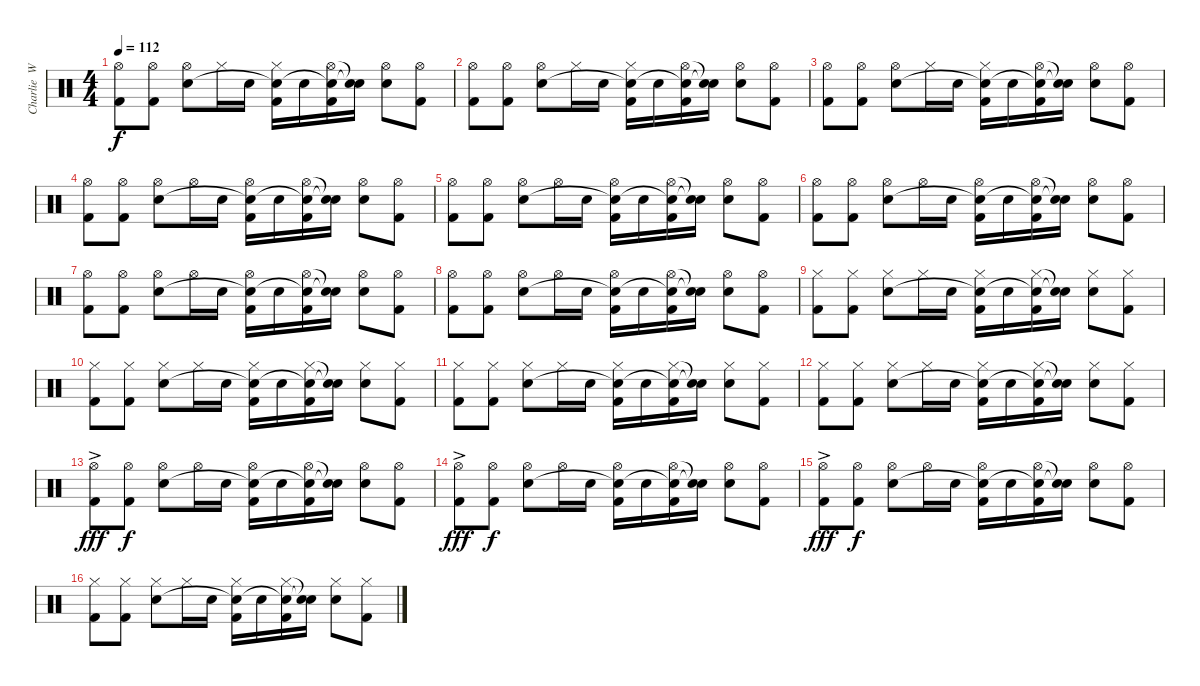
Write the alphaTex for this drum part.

\track ("Charlie  Watts" "Charlie  W") {instrument percussion}
\staff {score}
\articulation defaults
\ts (4 4)
\tempo 112
\clef neutral
\ks c
("Hi-Hat (open)" "Kick (hit) 2").8{dy f} ("Hi-Hat (open)" "Kick (hit) 2").8 ("Hi-Hat (open)" "Snare (hit) 2").8 "Hi-Hat (closed)".16 "Snare (hit) 2".16 ("Hi-Hat (closed)" "Snare (hit)"{t} "Kick (hit) 2").16 "Snare (hit) 2".16 ("Hi-Hat (open)" "Snare (hit)"{t} "Kick (hit) 2").16 ("Snare (hit)"{t} "Snare (hit)"{t}).16 ("Hi-Hat (open)" "Snare (hit) 2").8 ("Hi-Hat (open)" "Kick (hit) 2").8 |
("Hi-Hat (open)" "Kick (hit) 2").8 ("Hi-Hat (open)" "Kick (hit) 2").8 ("Hi-Hat (open)" "Snare (hit) 2").8 "Hi-Hat (closed)".16 "Snare (hit) 2".16 ("Hi-Hat (closed)" "Snare (hit)"{t} "Kick (hit) 2").16 "Snare (hit) 2".16 ("Hi-Hat (open)" "Snare (hit)"{t} "Kick (hit) 2").16 ("Snare (hit)"{t} "Snare (hit)"{t}).16 ("Hi-Hat (open)" "Snare (hit) 2").8 ("Hi-Hat (open)" "Kick (hit) 2").8 |
("Hi-Hat (open)" "Kick (hit) 2").8 ("Hi-Hat (open)" "Kick (hit) 2").8 ("Hi-Hat (open)" "Snare (hit) 2").8 "Hi-Hat (closed)".16 "Snare (hit) 2".16 ("Hi-Hat (closed)" "Snare (hit)"{t} "Kick (hit) 2").16 "Snare (hit) 2".16 ("Hi-Hat (open)" "Snare (hit)"{t} "Kick (hit) 2").16 ("Snare (hit)"{t} "Snare (hit)"{t}).16 ("Hi-Hat (open)" "Snare (hit) 2").8 ("Hi-Hat (open)" "Kick (hit) 2").8 |
("Hi-Hat (open)" "Kick (hit) 2").8 ("Hi-Hat (open)" "Kick (hit) 2").8 ("Hi-Hat (open)" "Snare (hit) 2").8 "Hi-Hat (open)".16 "Snare (hit) 2".16 ("Hi-Hat (open)" "Snare (hit)"{t} "Kick (hit) 2").16 "Snare (hit) 2".16 ("Hi-Hat (open)" "Snare (hit)"{t} "Kick (hit) 2").16 ("Snare (hit)"{t} "Snare (hit)"{t}).16 ("Hi-Hat (open)" "Snare (hit) 2").8 ("Hi-Hat (open)" "Kick (hit) 2").8 |
("Hi-Hat (open)" "Kick (hit) 2").8 ("Hi-Hat (open)" "Kick (hit) 2").8 ("Hi-Hat (open)" "Snare (hit) 2").8 "Hi-Hat (open)".16 "Snare (hit) 2".16 ("Hi-Hat (open)" "Snare (hit)"{t} "Kick (hit) 2").16 "Snare (hit) 2".16 ("Hi-Hat (open)" "Snare (hit)"{t} "Kick (hit) 2").16 ("Snare (hit)"{t} "Snare (hit)"{t}).16 ("Hi-Hat (open)" "Snare (hit) 2").8 ("Hi-Hat (open)" "Kick (hit) 2").8 |
("Hi-Hat (open)" "Kick (hit) 2").8 ("Hi-Hat (open)" "Kick (hit) 2").8 ("Hi-Hat (open)" "Snare (hit) 2").8 "Hi-Hat (open)".16 "Snare (hit) 2".16 ("Hi-Hat (open)" "Snare (hit)"{t} "Kick (hit) 2").16 "Snare (hit) 2".16 ("Hi-Hat (open)" "Snare (hit)"{t} "Kick (hit) 2").16 ("Snare (hit)"{t} "Snare (hit)"{t}).16 ("Hi-Hat (open)" "Snare (hit) 2").8 ("Hi-Hat (open)" "Kick (hit) 2").8 |
("Hi-Hat (open)" "Kick (hit) 2").8 ("Hi-Hat (open)" "Kick (hit) 2").8 ("Hi-Hat (open)" "Snare (hit) 2").8 "Hi-Hat (open)".16 "Snare (hit) 2".16 ("Hi-Hat (open)" "Snare (hit)"{t} "Kick (hit) 2").16 "Snare (hit) 2".16 ("Hi-Hat (open)" "Snare (hit)"{t} "Kick (hit) 2").16 ("Snare (hit)"{t} "Snare (hit)"{t}).16 ("Hi-Hat (open)" "Snare (hit) 2").8 ("Hi-Hat (open)" "Kick (hit) 2").8 |
("Hi-Hat (open)" "Kick (hit) 2").8 ("Hi-Hat (open)" "Kick (hit) 2").8 ("Hi-Hat (open)" "Snare (hit) 2").8 "Hi-Hat (open)".16 "Snare (hit) 2".16 ("Hi-Hat (open)" "Snare (hit)"{t} "Kick (hit) 2").16 "Snare (hit) 2".16 ("Hi-Hat (open)" "Snare (hit)"{t} "Kick (hit) 2").16 ("Snare (hit)"{t} "Snare (hit)"{t}).16 ("Hi-Hat (open)" "Snare (hit) 2").8 ("Hi-Hat (open)" "Kick (hit) 2").8 |
("Hi-Hat (closed)" "Kick (hit) 2").8 ("Hi-Hat (closed)" "Kick (hit) 2").8 ("Hi-Hat (closed)" "Snare (hit) 2").8 "Hi-Hat (closed)".16 "Snare (hit) 2".16 ("Hi-Hat (closed)" "Snare (hit)"{t} "Kick (hit) 2").16 "Snare (hit) 2".16 ("Hi-Hat (closed)" "Snare (hit)"{t} "Kick (hit) 2").16 ("Snare (hit)"{t} "Snare (hit)"{t}).16 ("Hi-Hat (closed)" "Snare (hit) 2").8 ("Hi-Hat (closed)" "Kick (hit) 2").8 |
("Hi-Hat (closed)" "Kick (hit) 2").8 ("Hi-Hat (closed)" "Kick (hit) 2").8 ("Hi-Hat (closed)" "Snare (hit) 2").8 "Hi-Hat (closed)".16 "Snare (hit) 2".16 ("Hi-Hat (closed)" "Snare (hit)"{t} "Kick (hit) 2").16 "Snare (hit) 2".16 ("Hi-Hat (closed)" "Snare (hit)"{t} "Kick (hit) 2").16 ("Snare (hit)"{t} "Snare (hit)"{t}).16 ("Hi-Hat (closed)" "Snare (hit) 2").8 ("Hi-Hat (closed)" "Kick (hit) 2").8 |
("Hi-Hat (closed)" "Kick (hit) 2").8 ("Hi-Hat (closed)" "Kick (hit) 2").8 ("Hi-Hat (closed)" "Snare (hit) 2").8 "Hi-Hat (closed)".16 "Snare (hit) 2".16 ("Hi-Hat (closed)" "Snare (hit)"{t} "Kick (hit) 2").16 "Snare (hit) 2".16 ("Hi-Hat (closed)" "Snare (hit)"{t} "Kick (hit) 2").16 ("Snare (hit)"{t} "Snare (hit)"{t}).16 ("Hi-Hat (closed)" "Snare (hit) 2").8 ("Hi-Hat (closed)" "Kick (hit) 2").8 |
("Hi-Hat (closed)" "Kick (hit) 2").8 ("Hi-Hat (closed)" "Kick (hit) 2").8 ("Hi-Hat (closed)" "Snare (hit) 2").8 "Hi-Hat (closed)".16 "Snare (hit) 2".16 ("Hi-Hat (closed)" "Snare (hit)"{t} "Kick (hit) 2").16 "Snare (hit) 2".16 ("Hi-Hat (closed)" "Snare (hit)"{t} "Kick (hit) 2").16 ("Snare (hit)"{t} "Snare (hit)"{t}).16 ("Hi-Hat (closed)" "Snare (hit) 2").8 ("Hi-Hat (closed)" "Kick (hit) 2").8 |
("Hi-Hat (open)"{ac} "Kick (hit) 2"{ac}).8{dy fff} ("Hi-Hat (open)" "Kick (hit) 2").8{dy f} ("Hi-Hat (open)" "Snare (hit) 2").8 "Hi-Hat (open)".16 "Snare (hit) 2".16 ("Hi-Hat (open)" "Snare (hit)"{t} "Kick (hit) 2").16 "Snare (hit) 2".16 ("Hi-Hat (open)" "Snare (hit)"{t} "Kick (hit) 2").16 ("Snare (hit)"{t} "Snare (hit)"{t}).16 ("Hi-Hat (open)" "Snare (hit) 2").8 ("Hi-Hat (open)" "Kick (hit) 2").8 |
("Hi-Hat (open)"{ac} "Kick (hit) 2"{ac}).8{dy fff} ("Hi-Hat (open)" "Kick (hit) 2").8{dy f} ("Hi-Hat (open)" "Snare (hit) 2").8 "Hi-Hat (open)".16 "Snare (hit) 2".16 ("Hi-Hat (open)" "Snare (hit)"{t} "Kick (hit) 2").16 "Snare (hit) 2".16 ("Hi-Hat (open)" "Snare (hit)"{t} "Kick (hit) 2").16 ("Snare (hit)"{t} "Snare (hit)"{t}).16 ("Hi-Hat (open)" "Snare (hit) 2").8 ("Hi-Hat (open)" "Kick (hit) 2").8 |
("Hi-Hat (open)"{ac} "Kick (hit) 2"{ac}).8{dy fff} ("Hi-Hat (open)" "Kick (hit) 2").8{dy f} ("Hi-Hat (open)" "Snare (hit) 2").8 "Hi-Hat (open)".16 "Snare (hit) 2".16 ("Hi-Hat (open)" "Snare (hit)"{t} "Kick (hit) 2").16 "Snare (hit) 2".16 ("Hi-Hat (open)" "Snare (hit)"{t} "Kick (hit) 2").16 ("Snare (hit)"{t} "Snare (hit)"{t}).16 ("Hi-Hat (open)" "Snare (hit) 2").8 ("Hi-Hat (open)" "Kick (hit) 2").8 |
("Hi-Hat (closed)" "Kick (hit) 2").8 ("Hi-Hat (closed)" "Kick (hit) 2").8 ("Hi-Hat (closed)" "Snare (hit) 2").8 "Hi-Hat (closed)".16 "Snare (hit) 2".16 ("Hi-Hat (closed)" "Snare (hit)"{t} "Kick (hit) 2").16 "Snare (hit) 2".16 ("Hi-Hat (closed)" "Snare (hit)"{t} "Kick (hit) 2").16 ("Snare (hit)"{t} "Snare (hit)"{t}).16 ("Hi-Hat (closed)" "Snare (hit) 2").8 ("Hi-Hat (closed)" "Kick (hit) 2").8
